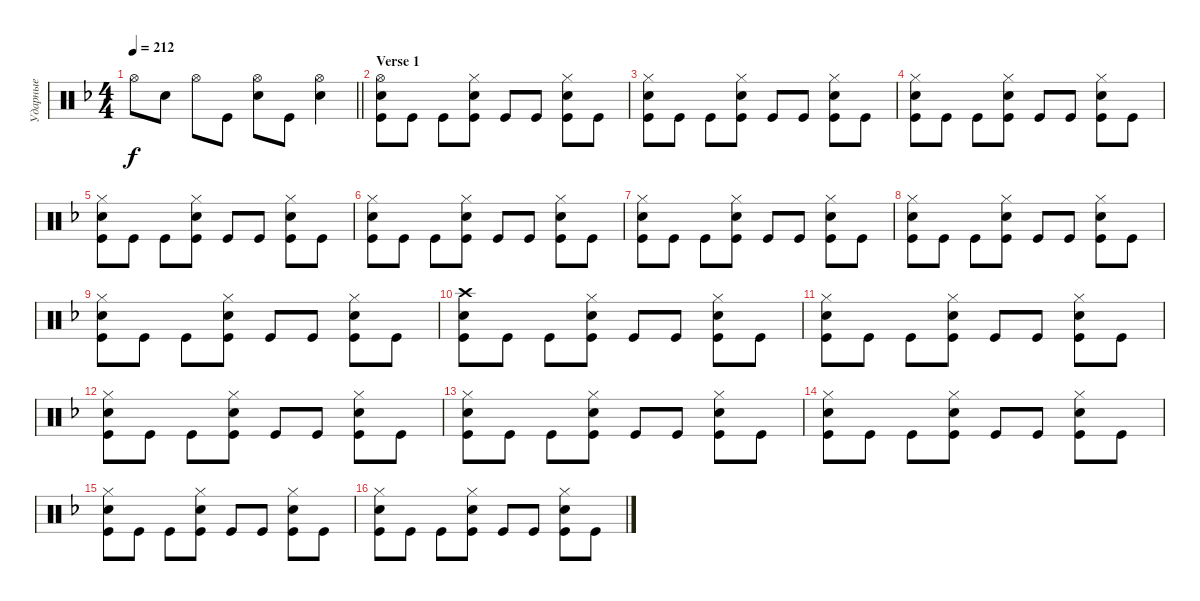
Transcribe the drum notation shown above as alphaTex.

\track ("Ударные" "Ударные") {instrument percussion}
\staff {score}
\articulation defaults
\ts (4 4)
\tempo 212
\clef neutral
\barLineRight lightlight
\ks dminor "Hi-Hat (open)".8{dy f} "Snare (hit) 2".8 "Hi-Hat (open)".8 "Kick (hit)".8
("Hi-Hat (open)" "Snare (hit) 2").8 "Kick (hit)".8 ("Hi-Hat (open)" "Snare (hit) 2").4 |
\section ("" "Verse 1")
("Hi-Hat (open)" "Kick (hit)" "Snare (hit) 2").8 "Kick (hit)".8 "Kick (hit)".8 ("Snare (hit) 2" "Hi-Hat (closed)" "Kick (hit)").8 "Kick (hit)".8 "Kick (hit)".8 ("Hi-Hat (closed)" "Kick (hit)" "Snare (hit) 2").8 "Kick (hit)".8 |
("Hi-Hat (closed)" "Kick (hit)" "Snare (hit) 2").8 "Kick (hit)".8 "Kick (hit)".8 ("Snare (hit) 2" "Hi-Hat (closed)" "Kick (hit)").8 "Kick (hit)".8 "Kick (hit)".8 ("Hi-Hat (closed)" "Kick (hit)" "Snare (hit) 2").8 "Kick (hit)".8 |
("Hi-Hat (closed)" "Kick (hit)" "Snare (hit) 2").8 "Kick (hit)".8 "Kick (hit)".8 ("Snare (hit) 2" "Hi-Hat (closed)" "Kick (hit)").8 "Kick (hit)".8 "Kick (hit)".8 ("Hi-Hat (closed)" "Kick (hit)" "Snare (hit) 2").8 "Kick (hit)".8 |
("Hi-Hat (closed)" "Kick (hit)" "Snare (hit) 2").8 "Kick (hit)".8 "Kick (hit)".8 ("Snare (hit) 2" "Hi-Hat (closed)" "Kick (hit)").8 "Kick (hit)".8 "Kick (hit)".8 ("Hi-Hat (closed)" "Kick (hit)" "Snare (hit) 2").8 "Kick (hit)".8 |
("Hi-Hat (closed)" "Kick (hit)" "Snare (hit) 2").8 "Kick (hit)".8 "Kick (hit)".8 ("Snare (hit) 2" "Hi-Hat (closed)" "Kick (hit)").8 "Kick (hit)".8 "Kick (hit)".8 ("Hi-Hat (closed)" "Kick (hit)" "Snare (hit) 2").8 "Kick (hit)".8 |
("Hi-Hat (closed)" "Kick (hit)" "Snare (hit) 2").8 "Kick (hit)".8 "Kick (hit)".8 ("Snare (hit) 2" "Hi-Hat (closed)" "Kick (hit)").8 "Kick (hit)".8 "Kick (hit)".8 ("Hi-Hat (closed)" "Kick (hit)" "Snare (hit) 2").8 "Kick (hit)".8 |
("Hi-Hat (closed)" "Kick (hit)" "Snare (hit) 2").8 "Kick (hit)".8 "Kick (hit)".8 ("Snare (hit) 2" "Hi-Hat (closed)" "Kick (hit)").8 "Kick (hit)".8 "Kick (hit)".8 ("Hi-Hat (closed)" "Kick (hit)" "Snare (hit) 2").8 "Kick (hit)".8 |
("Hi-Hat (closed)" "Kick (hit)" "Snare (hit) 2").8 "Kick (hit)".8 "Kick (hit)".8 ("Snare (hit) 2" "Hi-Hat (closed)" "Kick (hit)").8 "Kick (hit)".8 "Kick (hit)".8 ("Hi-Hat (closed)" "Kick (hit)" "Snare (hit) 2").8 "Kick (hit)".8 |
("Crash high (hit)" "Kick (hit)" "Snare (hit) 2").8 "Kick (hit)".8 "Kick (hit)".8 ("Snare (hit) 2" "Hi-Hat (closed)" "Kick (hit)").8 "Kick (hit)".8 "Kick (hit)".8 ("Hi-Hat (closed)" "Kick (hit)" "Snare (hit) 2").8 "Kick (hit)".8 |
("Hi-Hat (closed)" "Kick (hit)" "Snare (hit) 2").8 "Kick (hit)".8 "Kick (hit)".8 ("Snare (hit) 2" "Hi-Hat (closed)" "Kick (hit)").8 "Kick (hit)".8 "Kick (hit)".8 ("Hi-Hat (closed)" "Kick (hit)" "Snare (hit) 2").8 "Kick (hit)".8 |
("Hi-Hat (closed)" "Kick (hit)" "Snare (hit) 2").8 "Kick (hit)".8 "Kick (hit)".8 ("Snare (hit) 2" "Hi-Hat (closed)" "Kick (hit)").8 "Kick (hit)".8 "Kick (hit)".8 ("Hi-Hat (closed)" "Kick (hit)" "Snare (hit) 2").8 "Kick (hit)".8 |
("Hi-Hat (closed)" "Kick (hit)" "Snare (hit) 2").8 "Kick (hit)".8 "Kick (hit)".8 ("Snare (hit) 2" "Hi-Hat (closed)" "Kick (hit)").8 "Kick (hit)".8 "Kick (hit)".8 ("Hi-Hat (closed)" "Kick (hit)" "Snare (hit) 2").8 "Kick (hit)".8 |
("Hi-Hat (closed)" "Kick (hit)" "Snare (hit) 2").8 "Kick (hit)".8 "Kick (hit)".8 ("Snare (hit) 2" "Hi-Hat (closed)" "Kick (hit)").8 "Kick (hit)".8 "Kick (hit)".8 ("Hi-Hat (closed)" "Kick (hit)" "Snare (hit) 2").8 "Kick (hit)".8 |
("Hi-Hat (closed)" "Kick (hit)" "Snare (hit) 2").8 "Kick (hit)".8 "Kick (hit)".8 ("Snare (hit) 2" "Hi-Hat (closed)" "Kick (hit)").8 "Kick (hit)".8 "Kick (hit)".8 ("Hi-Hat (closed)" "Kick (hit)" "Snare (hit) 2").8 "Kick (hit)".8 |
("Hi-Hat (closed)" "Kick (hit)" "Snare (hit) 2").8 "Kick (hit)".8 "Kick (hit)".8 ("Snare (hit) 2" "Hi-Hat (closed)" "Kick (hit)").8 "Kick (hit)".8 "Kick (hit)".8 ("Hi-Hat (closed)" "Kick (hit)" "Snare (hit) 2").8 "Kick (hit)".8
